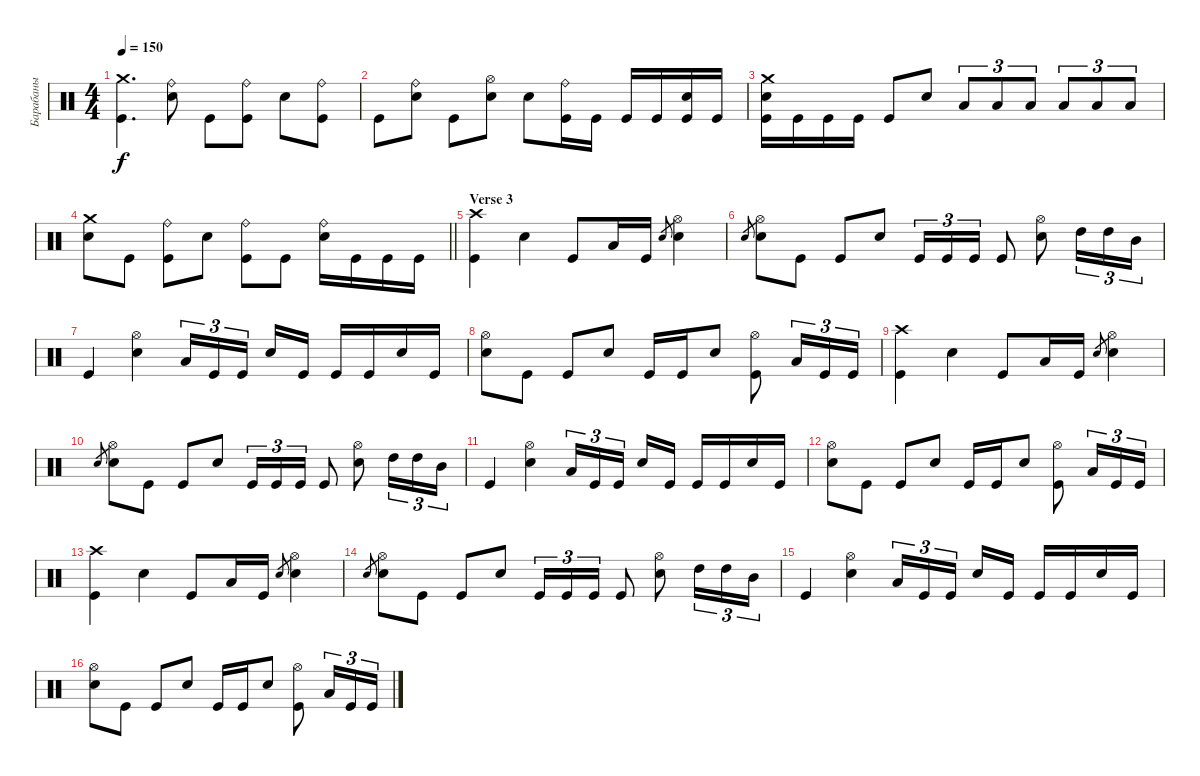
\track ("Барабаны" "Барабаны") {instrument percussion}
\staff {score}
\articulation defaults
\ts (4 4)
\tempo 150
\clef neutral
\ks c
("Crash medium (hit)" "Kick (hit)").4{d dy f} ("Ride (bell)" "Snare (hit) 2").8 "Kick (hit)".8 ("Ride (bell)" "Kick (hit)").8 "Snare (hit) 2".8 ("Ride (bell)" "Kick (hit)").8 |
"Kick (hit)".8 ("Ride (bell)" "Snare (hit) 2").8 "Kick (hit)".8 ("Hi-Hat (open)" "Snare (hit) 2").8 "Snare (hit) 2".8 ("Ride (bell)" "Kick (hit)").16 "Kick (hit)".16 "Kick (hit)".16 "Kick (hit)".16 ("Snare (hit) 2" "Kick (hit)").16 "Kick (hit)".16 |
("Crash medium (hit)" "Snare (hit) 2" "Kick (hit)").16 "Kick (hit)".16 "Kick (hit)".16 "Kick (hit)".16 "Kick (hit)".8 "Snare (hit) 2".8 "Low Tom (hit)".8{tu (3 2)} "Low Tom (hit)".8{tu (3 2)} "Low Tom (hit)".8{tu (3 2)} "Low Tom (hit)".8{tu (3 2)} "Low Tom (hit)".8{tu (3 2)} "Low Tom (hit)".8{tu (3 2)} |
\barLineRight lightlight
("Crash medium (hit)" "Snare (hit) 2").8 "Kick (hit)".8 ("Ride (bell)" "Kick (hit)").8 "Snare (hit) 2".8 ("Ride (bell)" "Kick (hit)").8 "Kick (hit)".8 ("Ride (bell)" "Snare (hit) 2").16 "Kick (hit)".16 "Kick (hit)".16 "Kick (hit)".16 |
\section ("" "Verse 3")
("Crash high (hit)" "Kick (hit)").4 "Snare (hit) 2".4 "Kick (hit)".8 "Low Tom (hit)".16 "Kick (hit)".16 "Snare (hit) 2".8{gr} ("Hi-Hat (open)" "Snare (hit) 2").4 |
"Snare (hit) 2".8{gr} ("Hi-Hat (open)" "Snare (hit) 2").8 "Kick (hit)".8 "Kick (hit)".8 "Snare (hit) 2".8 "Kick (hit)".16{tu (3 2)} "Kick (hit)".16{tu (3 2)} "Kick (hit)".16{tu (3 2)} "Kick (hit)".8 ("Hi-Hat (open)" "Snare (hit) 2").8 "High Tom (hit)".16{tu (3 2)} "High Tom (hit)".16{tu (3 2)} "Mid Tom (hit)".16{tu (3 2)} |
"Kick (hit)".4 ("Hi-Hat (open)" "Snare (hit) 2").4 "Low Tom (hit)".16{tu (3 2)} "Kick (hit)".16{tu (3 2)} "Kick (hit)".16{tu (3 2) beam splitsecondary} "Snare (hit) 2".16 "Kick (hit)".16 "Kick (hit)".16 "Kick (hit)".16 "Snare (hit) 2".16 "Kick (hit)".16 |
("Hi-Hat (open)" "Snare (hit) 2").8 "Kick (hit)".8 "Kick (hit)".8 "Snare (hit) 2".8 "Kick (hit)".16 "Kick (hit)".16 "Snare (hit) 2".8 ("Hi-Hat (open)" "Kick (hit)").8 "Low Tom (hit)".16{tu (3 2)} "Kick (hit)".16{tu (3 2)} "Kick (hit)".16{tu (3 2)} |
("Crash high (hit)" "Kick (hit)").4 "Snare (hit) 2".4 "Kick (hit)".8 "Low Tom (hit)".16 "Kick (hit)".16 "Snare (hit) 2".8{gr} ("Hi-Hat (open)" "Snare (hit) 2").4 |
"Snare (hit) 2".8{gr} ("Hi-Hat (open)" "Snare (hit) 2").8 "Kick (hit)".8 "Kick (hit)".8 "Snare (hit) 2".8 "Kick (hit)".16{tu (3 2)} "Kick (hit)".16{tu (3 2)} "Kick (hit)".16{tu (3 2)} "Kick (hit)".8 ("Hi-Hat (open)" "Snare (hit) 2").8 "High Tom (hit)".16{tu (3 2)} "High Tom (hit)".16{tu (3 2)} "Mid Tom (hit)".16{tu (3 2)} |
"Kick (hit)".4 ("Hi-Hat (open)" "Snare (hit) 2").4 "Low Tom (hit)".16{tu (3 2)} "Kick (hit)".16{tu (3 2)} "Kick (hit)".16{tu (3 2) beam splitsecondary} "Snare (hit) 2".16 "Kick (hit)".16 "Kick (hit)".16 "Kick (hit)".16 "Snare (hit) 2".16 "Kick (hit)".16 |
("Hi-Hat (open)" "Snare (hit) 2").8 "Kick (hit)".8 "Kick (hit)".8 "Snare (hit) 2".8 "Kick (hit)".16 "Kick (hit)".16 "Snare (hit) 2".8 ("Hi-Hat (open)" "Kick (hit)").8 "Low Tom (hit)".16{tu (3 2)} "Kick (hit)".16{tu (3 2)} "Kick (hit)".16{tu (3 2)} |
("Crash high (hit)" "Kick (hit)").4 "Snare (hit) 2".4 "Kick (hit)".8 "Low Tom (hit)".16 "Kick (hit)".16 "Snare (hit) 2".8{gr} ("Hi-Hat (open)" "Snare (hit) 2").4 |
"Snare (hit) 2".8{gr} ("Hi-Hat (open)" "Snare (hit) 2").8 "Kick (hit)".8 "Kick (hit)".8 "Snare (hit) 2".8 "Kick (hit)".16{tu (3 2)} "Kick (hit)".16{tu (3 2)} "Kick (hit)".16{tu (3 2)} "Kick (hit)".8 ("Hi-Hat (open)" "Snare (hit) 2").8 "High Tom (hit)".16{tu (3 2)} "High Tom (hit)".16{tu (3 2)} "Mid Tom (hit)".16{tu (3 2)} |
"Kick (hit)".4 ("Hi-Hat (open)" "Snare (hit) 2").4 "Low Tom (hit)".16{tu (3 2)} "Kick (hit)".16{tu (3 2)} "Kick (hit)".16{tu (3 2) beam splitsecondary} "Snare (hit) 2".16 "Kick (hit)".16 "Kick (hit)".16 "Kick (hit)".16 "Snare (hit) 2".16 "Kick (hit)".16 |
("Hi-Hat (open)" "Snare (hit) 2").8 "Kick (hit)".8 "Kick (hit)".8 "Snare (hit) 2".8 "Kick (hit)".16 "Kick (hit)".16 "Snare (hit) 2".8 ("Hi-Hat (open)" "Kick (hit)").8 "Low Tom (hit)".16{tu (3 2)} "Kick (hit)".16{tu (3 2)} "Kick (hit)".16{tu (3 2)}
